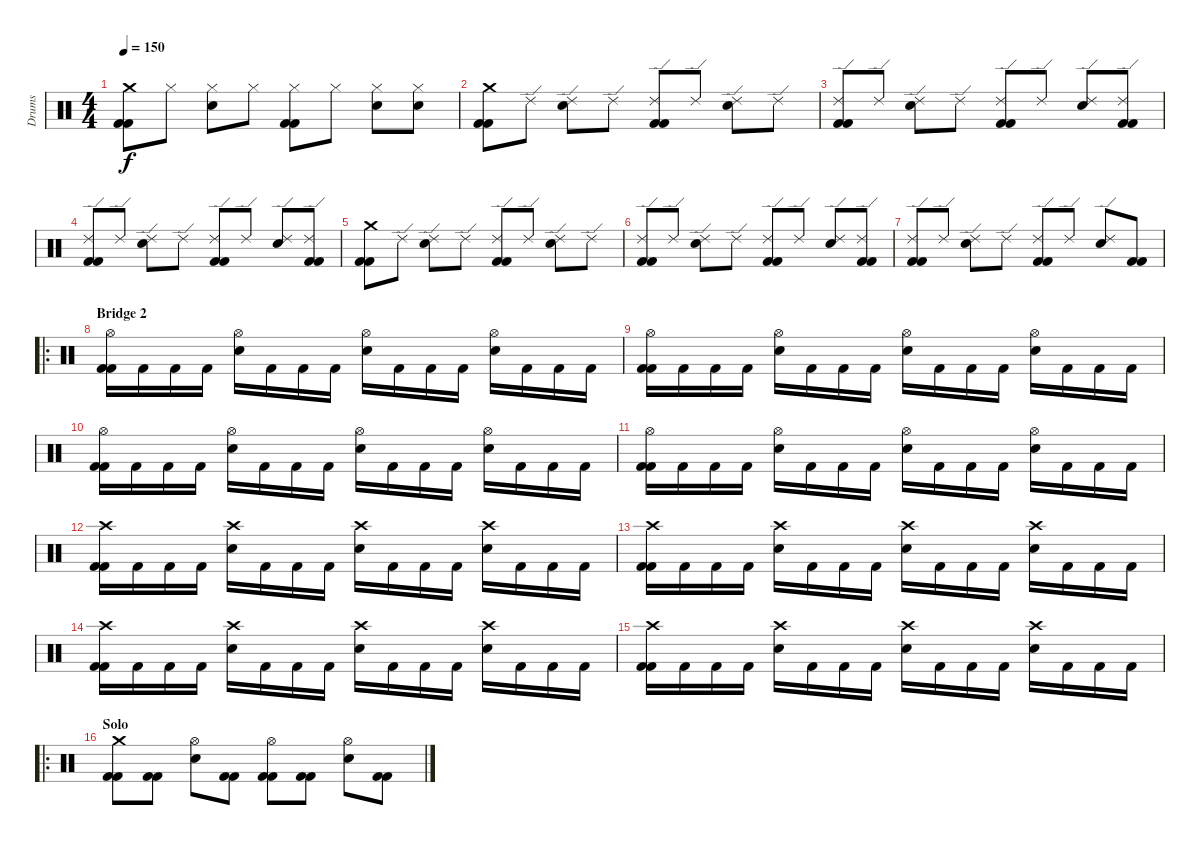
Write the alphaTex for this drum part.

\track ("Drums" "Drums") {instrument percussion}
\staff {score}
\articulation defaults
\ts (4 4)
\tempo 150
\clef neutral
\ks c
("Crash medium (hit)" "Kick (hit) 2" "Kick (hit) 2").8{dy f} "Hi-Hat (closed)".8 ("Electric Snare (hit)" "Hi-Hat (closed)").8 "Hi-Hat (closed)".8 ("Hi-Hat (closed)" "Kick (hit) 2" "Kick (hit) 2").8 "Hi-Hat (closed)".8 ("Electric Snare (hit)" "Hi-Hat (closed)").8 ("Electric Snare (hit)" "Hi-Hat (closed)").8 |
("Crash medium (hit)" "Kick (hit) 2" "Kick (hit) 2").8 "Ride (edge) 2".8 ("Electric Snare (hit)" "Ride (edge) 2").8 "Ride (edge) 2".8 ("Ride (edge) 2" "Kick (hit) 2" "Kick (hit) 2").8 "Ride (edge) 2".8 ("Electric Snare (hit)" "Ride (edge) 2").8 "Ride (edge) 2".8 |
("Ride (edge) 2" "Kick (hit) 2" "Kick (hit) 2").8 "Ride (edge) 2".8 ("Electric Snare (hit)" "Ride (edge) 2").8 "Ride (edge) 2".8 ("Ride (edge) 2" "Kick (hit) 2" "Kick (hit) 2").8 "Ride (edge) 2".8 ("Electric Snare (hit)" "Ride (edge) 2").8 ("Ride (edge) 2" "Kick (hit) 2" "Kick (hit) 2").8 |
("Ride (edge) 2" "Kick (hit) 2" "Kick (hit) 2").8 "Ride (edge) 2".8 ("Electric Snare (hit)" "Ride (edge) 2").8 "Ride (edge) 2".8 ("Ride (edge) 2" "Kick (hit) 2" "Kick (hit) 2").8 "Ride (edge) 2".8 ("Electric Snare (hit)" "Ride (edge) 2").8 ("Ride (edge) 2" "Kick (hit) 2" "Kick (hit) 2").8 |
("Crash medium (hit)" "Kick (hit) 2" "Kick (hit) 2").8 "Ride (edge) 2".8 ("Electric Snare (hit)" "Ride (edge) 2").8 "Ride (edge) 2".8 ("Ride (edge) 2" "Kick (hit) 2" "Kick (hit) 2").8 "Ride (edge) 2".8 ("Electric Snare (hit)" "Ride (edge) 2").8 "Ride (edge) 2".8 |
("Ride (edge) 2" "Kick (hit) 2" "Kick (hit) 2").8 "Ride (edge) 2".8 ("Electric Snare (hit)" "Ride (edge) 2").8 "Ride (edge) 2".8 ("Ride (edge) 2" "Kick (hit) 2" "Kick (hit) 2").8 "Ride (edge) 2".8 ("Electric Snare (hit)" "Ride (edge) 2").8 ("Ride (edge) 2" "Kick (hit) 2" "Kick (hit) 2").8 |
("Ride (edge) 2" "Kick (hit) 2" "Kick (hit) 2").8 "Ride (edge) 2".8 ("Electric Snare (hit)" "Ride (edge) 2").8 "Ride (edge) 2".8 ("Ride (edge) 2" "Kick (hit) 2" "Kick (hit) 2").8 "Ride (edge) 2".8 ("Electric Snare (hit)" "Ride (edge) 2").8 ("Kick (hit) 2" "Kick (hit) 2").8 |
\ro
\section ("" "Bridge 2")
("Hi-Hat (open)" "Kick (hit) 2" "Kick (hit) 2").16 "Kick (hit) 2".16 "Kick (hit) 2".16 "Kick (hit) 2".16 ("Electric Snare (hit)" "Hi-Hat (open)").16 "Kick (hit) 2".16 "Kick (hit) 2".16 "Kick (hit) 2".16 ("Hi-Hat (open)" "Electric Snare (hit)").16 "Kick (hit) 2".16 "Kick (hit) 2".16 "Kick (hit) 2".16 ("Electric Snare (hit)" "Hi-Hat (open)").16 "Kick (hit) 2".16 "Kick (hit) 2".16 "Kick (hit) 2".16 |
("Hi-Hat (open)" "Kick (hit) 2" "Kick (hit) 2").16 "Kick (hit) 2".16 "Kick (hit) 2".16 "Kick (hit) 2".16 ("Electric Snare (hit)" "Hi-Hat (open)").16 "Kick (hit) 2".16 "Kick (hit) 2".16 "Kick (hit) 2".16 ("Hi-Hat (open)" "Electric Snare (hit)").16 "Kick (hit) 2".16 "Kick (hit) 2".16 "Kick (hit) 2".16 ("Electric Snare (hit)" "Hi-Hat (open)").16 "Kick (hit) 2".16 "Kick (hit) 2".16 "Kick (hit) 2".16 |
("Hi-Hat (open)" "Kick (hit) 2" "Kick (hit) 2").16 "Kick (hit) 2".16 "Kick (hit) 2".16 "Kick (hit) 2".16 ("Electric Snare (hit)" "Hi-Hat (open)").16 "Kick (hit) 2".16 "Kick (hit) 2".16 "Kick (hit) 2".16 ("Hi-Hat (open)" "Electric Snare (hit)").16 "Kick (hit) 2".16 "Kick (hit) 2".16 "Kick (hit) 2".16 ("Electric Snare (hit)" "Hi-Hat (open)").16 "Kick (hit) 2".16 "Kick (hit) 2".16 "Kick (hit) 2".16 |
("Hi-Hat (open)" "Kick (hit) 2" "Kick (hit) 2").16 "Kick (hit) 2".16 "Kick (hit) 2".16 "Kick (hit) 2".16 ("Electric Snare (hit)" "Hi-Hat (open)").16 "Kick (hit) 2".16 "Kick (hit) 2".16 "Kick (hit) 2".16 ("Hi-Hat (open)" "Electric Snare (hit)").16 "Kick (hit) 2".16 "Kick (hit) 2".16 "Kick (hit) 2".16 ("Electric Snare (hit)" "Hi-Hat (open)").16 "Kick (hit) 2".16 "Kick (hit) 2".16 "Kick (hit) 2".16 |
("Crash high (hit)" "Kick (hit) 2" "Kick (hit) 2").16 "Kick (hit) 2".16 "Kick (hit) 2".16 "Kick (hit) 2".16 ("Electric Snare (hit)" "Crash high (hit)").16 "Kick (hit) 2".16 "Kick (hit) 2".16 "Kick (hit) 2".16 ("Crash high (hit)" "Electric Snare (hit)").16 "Kick (hit) 2".16 "Kick (hit) 2".16 "Kick (hit) 2".16 ("Electric Snare (hit)" "Crash high (hit)").16 "Kick (hit) 2".16 "Kick (hit) 2".16 "Kick (hit) 2".16 |
("Crash high (hit)" "Kick (hit) 2" "Kick (hit) 2").16 "Kick (hit) 2".16 "Kick (hit) 2".16 "Kick (hit) 2".16 ("Electric Snare (hit)" "Crash high (hit)").16 "Kick (hit) 2".16 "Kick (hit) 2".16 "Kick (hit) 2".16 ("Crash high (hit)" "Electric Snare (hit)").16 "Kick (hit) 2".16 "Kick (hit) 2".16 "Kick (hit) 2".16 ("Electric Snare (hit)" "Crash high (hit)").16 "Kick (hit) 2".16 "Kick (hit) 2".16 "Kick (hit) 2".16 |
("Crash high (hit)" "Kick (hit) 2" "Kick (hit) 2").16 "Kick (hit) 2".16 "Kick (hit) 2".16 "Kick (hit) 2".16 ("Electric Snare (hit)" "Crash high (hit)").16 "Kick (hit) 2".16 "Kick (hit) 2".16 "Kick (hit) 2".16 ("Crash high (hit)" "Electric Snare (hit)").16 "Kick (hit) 2".16 "Kick (hit) 2".16 "Kick (hit) 2".16 ("Electric Snare (hit)" "Crash high (hit)").16 "Kick (hit) 2".16 "Kick (hit) 2".16 "Kick (hit) 2".16 |
("Crash high (hit)" "Kick (hit) 2" "Kick (hit) 2").16 "Kick (hit) 2".16 "Kick (hit) 2".16 "Kick (hit) 2".16 ("Electric Snare (hit)" "Crash high (hit)").16 "Kick (hit) 2".16 "Kick (hit) 2".16 "Kick (hit) 2".16 ("Crash high (hit)" "Electric Snare (hit)").16 "Kick (hit) 2".16 "Kick (hit) 2".16 "Kick (hit) 2".16 ("Electric Snare (hit)" "Crash high (hit)").16 "Kick (hit) 2".16 "Kick (hit) 2".16 "Kick (hit) 2".16 |
\ro
\section ("" "Solo")
("Crash medium (hit)" "Kick (hit) 2" "Kick (hit) 2").8 ("Kick (hit) 2" "Kick (hit) 2").8 ("Hi-Hat (open)" "Electric Snare (hit)").8 ("Kick (hit) 2" "Kick (hit) 2").8 ("Hi-Hat (open)" "Kick (hit) 2" "Kick (hit) 2").8 ("Kick (hit) 2" "Kick (hit) 2").8 ("Electric Snare (hit)" "Hi-Hat (open)").8 ("Kick (hit) 2" "Kick (hit) 2").8
